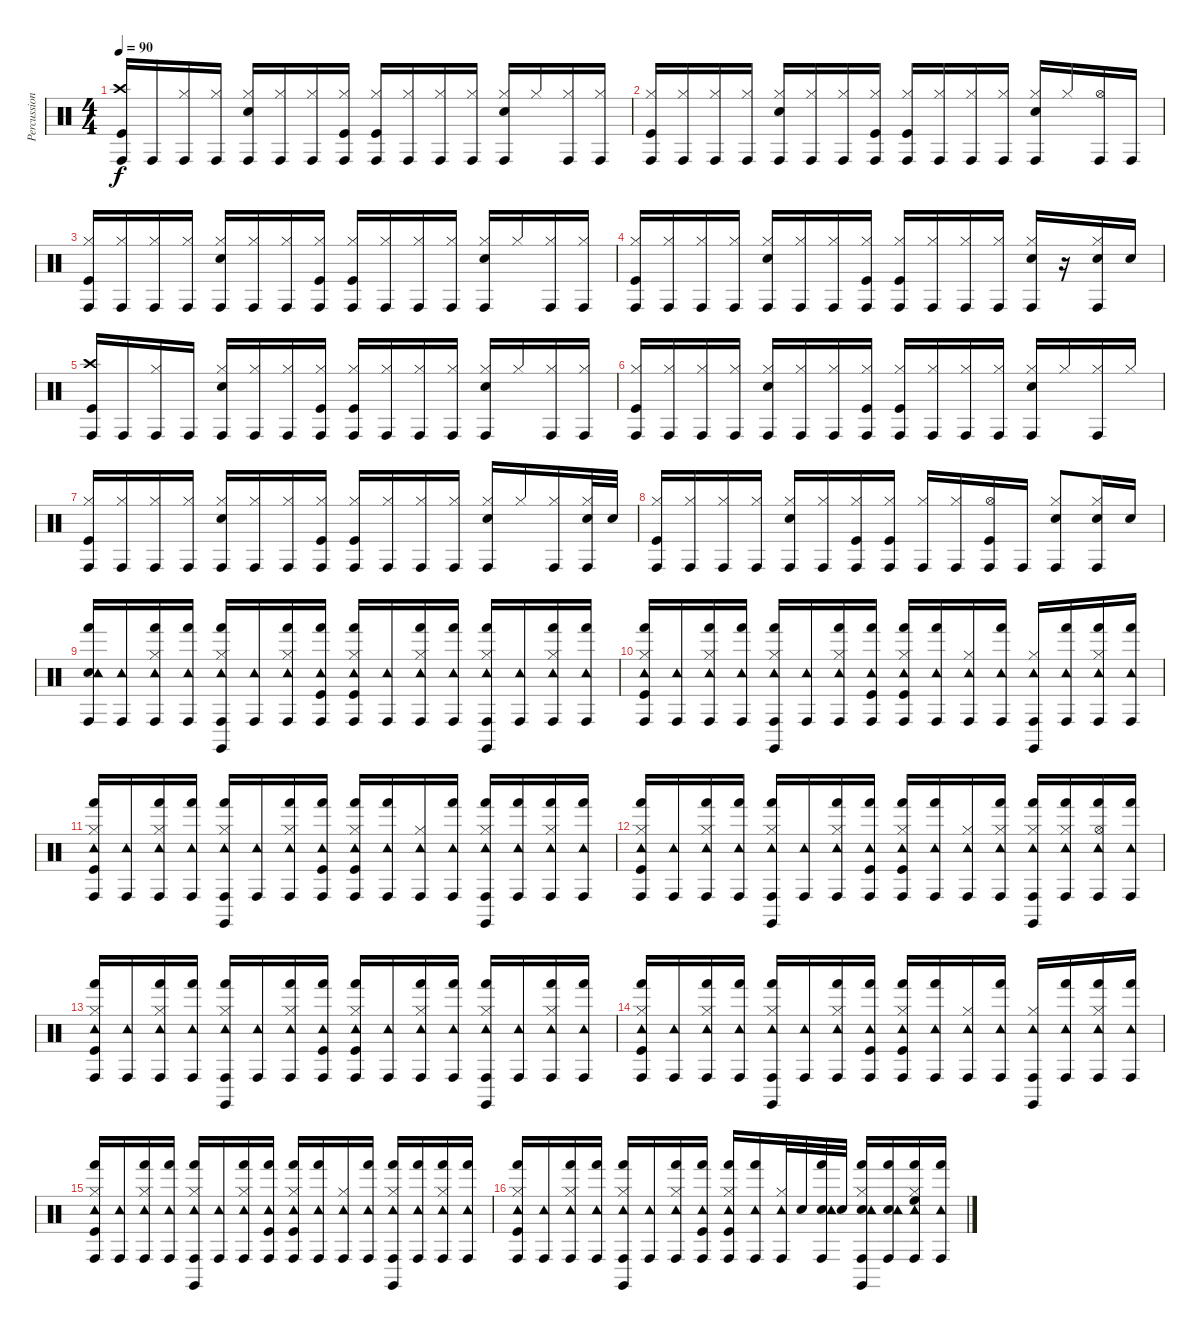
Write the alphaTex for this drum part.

\track ("Percussions" "Percussion") {instrument percussion}
\staff {score}
\articulation defaults
\ts (4 4)
\tempo 90
\clef neutral
\ks c
("Crash high (hit)" "Kick (hit)" "Conga high (hit)").16{dy f} "Conga high (hit)".16 ("Hi-Hat (closed)" "Conga high (hit)").16 ("Hi-Hat (closed)" "Conga high (hit)").16 ("Hi-Hat (closed)" "Electric Snare (hit)" "Conga high (hit)").16 ("Hi-Hat (closed)" "Conga high (hit)").16 ("Hi-Hat (closed)" "Conga high (hit)").16 ("Hi-Hat (closed)" "Kick (hit)" "Conga high (hit)").16 ("Hi-Hat (closed)" "Kick (hit)" "Conga high (hit)").16 ("Hi-Hat (closed)" "Conga high (hit)").16 ("Hi-Hat (closed)" "Conga high (hit)").16 ("Hi-Hat (closed)" "Conga high (hit)").16 ("Hi-Hat (closed)" "Electric Snare (hit)" "Conga high (hit)").16 "Hi-Hat (closed)".16 ("Hi-Hat (closed)" "Conga high (hit)").16 ("Hi-Hat (closed)" "Conga high (hit)").16 |
("Hi-Hat (closed)" "Kick (hit)" "Conga high (hit)").16 ("Hi-Hat (closed)" "Conga high (hit)").16 ("Hi-Hat (closed)" "Conga high (hit)").16 ("Hi-Hat (closed)" "Conga high (hit)").16 ("Hi-Hat (closed)" "Electric Snare (hit)" "Conga high (hit)").16 ("Hi-Hat (closed)" "Conga high (hit)").16 ("Hi-Hat (closed)" "Conga high (hit)").16 ("Hi-Hat (closed)" "Kick (hit)" "Conga high (hit)").16 ("Hi-Hat (closed)" "Kick (hit)" "Conga high (hit)").16 ("Hi-Hat (closed)" "Conga high (hit)").16 ("Hi-Hat (closed)" "Conga high (hit)").16 ("Hi-Hat (closed)" "Conga high (hit)").16 ("Hi-Hat (closed)" "Electric Snare (hit)" "Conga high (hit)").16 "Hi-Hat (closed)".16 ("Hi-Hat (open)" "Conga high (hit)").16 "Conga high (hit)".16 |
("Hi-Hat (closed)" "Kick (hit)" "Conga high (hit)").16 ("Hi-Hat (closed)" "Conga high (hit)").16 ("Hi-Hat (closed)" "Conga high (hit)").16 ("Hi-Hat (closed)" "Conga high (hit)").16 ("Hi-Hat (closed)" "Electric Snare (hit)" "Conga high (hit)").16 ("Hi-Hat (closed)" "Conga high (hit)").16 ("Hi-Hat (closed)" "Conga high (hit)").16 ("Hi-Hat (closed)" "Kick (hit)" "Conga high (hit)").16 ("Hi-Hat (closed)" "Kick (hit)" "Conga high (hit)").16 ("Hi-Hat (closed)" "Conga high (hit)").16 ("Hi-Hat (closed)" "Conga high (hit)").16 ("Hi-Hat (closed)" "Conga high (hit)").16 ("Hi-Hat (closed)" "Electric Snare (hit)" "Conga high (hit)").16 "Hi-Hat (closed)".16 ("Hi-Hat (closed)" "Conga high (hit)").16 ("Hi-Hat (closed)" "Conga high (hit)").16 |
("Hi-Hat (closed)" "Kick (hit)" "Conga high (hit)").16 ("Hi-Hat (closed)" "Conga high (hit)").16 ("Hi-Hat (closed)" "Conga high (hit)").16 ("Hi-Hat (closed)" "Conga high (hit)").16 ("Hi-Hat (closed)" "Electric Snare (hit)" "Conga high (hit)").16 ("Hi-Hat (closed)" "Conga high (hit)").16 ("Hi-Hat (closed)" "Conga high (hit)").16 ("Hi-Hat (closed)" "Kick (hit)" "Conga high (hit)").16 ("Hi-Hat (closed)" "Kick (hit)" "Conga high (hit)").16 ("Hi-Hat (closed)" "Conga high (hit)").16 ("Hi-Hat (closed)" "Conga high (hit)").16 ("Hi-Hat (closed)" "Conga high (hit)").16 ("Hi-Hat (closed)" "Electric Snare (hit)" "Conga high (hit)").16 r.16 ("Hi-Hat (closed)" "Electric Snare (hit)" "Conga high (hit)").16 "Electric Snare (hit)".16 |
("Crash high (hit)" "Kick (hit)" "Conga high (hit)").16 "Conga high (hit)".16 ("Hi-Hat (closed)" "Conga high (hit)").16 "Conga high (hit)".16 ("Hi-Hat (closed)" "Electric Snare (hit)" "Conga high (hit)").16 ("Hi-Hat (closed)" "Conga high (hit)").16 ("Hi-Hat (closed)" "Conga high (hit)").16 ("Hi-Hat (closed)" "Kick (hit)" "Conga high (hit)").16 ("Hi-Hat (closed)" "Kick (hit)" "Conga high (hit)").16 ("Hi-Hat (closed)" "Conga high (hit)").16 ("Hi-Hat (closed)" "Conga high (hit)").16 ("Hi-Hat (closed)" "Conga high (hit)").16 ("Hi-Hat (closed)" "Electric Snare (hit)" "Conga high (hit)").16 "Hi-Hat (closed)".16 ("Hi-Hat (closed)" "Conga high (hit)").16 ("Hi-Hat (closed)" "Conga high (hit)").16 |
("Hi-Hat (closed)" "Kick (hit)" "Conga high (hit)").16 ("Hi-Hat (closed)" "Conga high (hit)").16 ("Hi-Hat (closed)" "Conga high (hit)").16 ("Hi-Hat (closed)" "Conga high (hit)").16 ("Hi-Hat (closed)" "Electric Snare (hit)" "Conga high (hit)").16 ("Hi-Hat (closed)" "Conga high (hit)").16 ("Hi-Hat (closed)" "Conga high (hit)").16 ("Hi-Hat (closed)" "Kick (hit)" "Conga high (hit)").16 ("Hi-Hat (closed)" "Kick (hit)" "Conga high (hit)").16 ("Hi-Hat (closed)" "Conga high (hit)").16 ("Hi-Hat (closed)" "Conga high (hit)").16 ("Hi-Hat (closed)" "Conga high (hit)").16 ("Hi-Hat (closed)" "Electric Snare (hit)" "Conga high (hit)").16 "Hi-Hat (closed)".16 ("Hi-Hat (closed)" "Conga high (hit)").16 "Hi-Hat (closed)".16 |
("Hi-Hat (closed)" "Kick (hit)" "Conga high (hit)").16 ("Hi-Hat (closed)" "Conga high (hit)").16 ("Hi-Hat (closed)" "Conga high (hit)").16 ("Hi-Hat (closed)" "Conga high (hit)").16 ("Hi-Hat (closed)" "Electric Snare (hit)" "Conga high (hit)").16 ("Hi-Hat (closed)" "Conga high (hit)").16 ("Hi-Hat (closed)" "Conga high (hit)").16 ("Hi-Hat (closed)" "Kick (hit)" "Conga high (hit)").16 ("Hi-Hat (closed)" "Kick (hit)" "Conga high (hit)").16 ("Hi-Hat (closed)" "Conga high (hit)").16 ("Hi-Hat (closed)" "Conga high (hit)").16 ("Hi-Hat (closed)" "Conga high (hit)").16 ("Hi-Hat (closed)" "Electric Snare (hit)" "Conga high (hit)").16 "Hi-Hat (closed)".16 ("Hi-Hat (closed)" "Conga high (hit)").16 ("Hi-Hat (closed)" "Electric Snare (hit)" "Conga high (hit)").32 "Electric Snare (hit)".32 |
("Hi-Hat (closed)" "Kick (hit)" "Conga high (hit)").16 ("Hi-Hat (closed)" "Conga high (hit)").16 ("Hi-Hat (closed)" "Conga high (hit)").16 ("Hi-Hat (closed)" "Conga high (hit)").16 ("Hi-Hat (closed)" "Electric Snare (hit)" "Conga high (hit)").16 ("Hi-Hat (closed)" "Conga high (hit)").16 ("Hi-Hat (closed)" "Kick (hit)" "Conga high (hit)").16 ("Hi-Hat (closed)" "Kick (hit)" "Conga high (hit)").16 ("Hi-Hat (closed)" "Conga high (hit)").16 ("Hi-Hat (closed)" "Conga high (hit)").16 ("Hi-Hat (open)" "Kick (hit)" "Conga high (hit)").16 "Conga high (hit)".16 ("Hi-Hat (closed)" "Electric Snare (hit)" "Conga high (hit)").8 ("Hi-Hat (closed)" "Electric Snare (hit)" "Conga high (hit)").16 "Electric Snare (hit)".16 |
("Electric Snare (hit)" "Hand (hit)" "Tambourine (hit)" "Conga high (hit)").16 ("Tambourine (hit)" "Conga high (hit)").16 ("Hi-Hat (closed)" "Hand (hit)" "Tambourine (hit)" "Conga high (hit)").16 ("Hand (hit)" "Tambourine (hit)" "Conga high (hit)").16 ("Hi-Hat (closed)" "Claves (hit)" "Hand (hit)" "Tambourine (hit)" "Conga high (hit)").16 ("Tambourine (hit)" "Conga high (hit)").16 ("Hi-Hat (closed)" "Hand (hit)" "Tambourine (hit)" "Conga high (hit)").16 ("Kick (hit)" "Hand (hit)" "Tambourine (hit)" "Conga high (hit)").16 ("Hi-Hat (closed)" "Kick (hit)" "Hand (hit)" "Tambourine (hit)" "Conga high (hit)").16 ("Tambourine (hit)" "Conga high (hit)").16 ("Hi-Hat (closed)" "Hand (hit)" "Tambourine (hit)" "Conga high (hit)").16 ("Hand (hit)" "Tambourine (hit)" "Conga high (hit)").16 ("Hi-Hat (closed)" "Claves (hit)" "Hand (hit)" "Tambourine (hit)" "Conga high (hit)").16 ("Tambourine (hit)" "Conga high (hit)").16 ("Hi-Hat (closed)" "Hand (hit)" "Tambourine (hit)" "Conga high (hit)").16 ("Hand (hit)" "Tambourine (hit)" "Conga high (hit)").16 |
("Hi-Hat (closed)" "Kick (hit)" "Hand (hit)" "Tambourine (hit)" "Conga high (hit)").16 ("Tambourine (hit)" "Conga high (hit)").16 ("Hi-Hat (closed)" "Hand (hit)" "Tambourine (hit)" "Conga high (hit)").16 ("Hand (hit)" "Tambourine (hit)" "Conga high (hit)").16 ("Hi-Hat (closed)" "Claves (hit)" "Hand (hit)" "Tambourine (hit)" "Conga high (hit)").16 ("Tambourine (hit)" "Conga high (hit)").16 ("Hi-Hat (closed)" "Hand (hit)" "Tambourine (hit)" "Conga high (hit)").16 ("Kick (hit)" "Hand (hit)" "Tambourine (hit)" "Conga high (hit)").16 ("Hi-Hat (closed)" "Kick (hit)" "Hand (hit)" "Tambourine (hit)" "Conga high (hit)").16 ("Hand (hit)" "Tambourine (hit)" "Conga high (hit)").16 ("Hi-Hat (closed)" "Tambourine (hit)" "Conga high (hit)").16 ("Hand (hit)" "Tambourine (hit)" "Conga high (hit)").16 ("Hi-Hat (closed)" "Claves (hit)" "Tambourine (hit)" "Conga high (hit)").16 ("Hand (hit)" "Tambourine (hit)" "Conga high (hit)").16 ("Hi-Hat (closed)" "Hand (hit)" "Tambourine (hit)" "Conga high (hit)").16 ("Hand (hit)" "Tambourine (hit)" "Conga high (hit)").16 |
("Hi-Hat (closed)" "Kick (hit)" "Hand (hit)" "Tambourine (hit)" "Conga high (hit)").16 ("Tambourine (hit)" "Conga high (hit)").16 ("Hi-Hat (closed)" "Hand (hit)" "Tambourine (hit)" "Conga high (hit)").16 ("Hand (hit)" "Tambourine (hit)" "Conga high (hit)").16 ("Hi-Hat (closed)" "Claves (hit)" "Hand (hit)" "Tambourine (hit)" "Conga high (hit)").16 ("Tambourine (hit)" "Conga high (hit)").16 ("Hi-Hat (closed)" "Hand (hit)" "Tambourine (hit)" "Conga high (hit)").16 ("Kick (hit)" "Hand (hit)" "Tambourine (hit)" "Conga high (hit)").16 ("Hi-Hat (closed)" "Kick (hit)" "Hand (hit)" "Tambourine (hit)" "Conga high (hit)").16 ("Hand (hit)" "Tambourine (hit)" "Conga high (hit)").16 ("Hi-Hat (closed)" "Tambourine (hit)" "Conga high (hit)").16 ("Hand (hit)" "Tambourine (hit)" "Conga high (hit)").16 ("Hi-Hat (closed)" "Claves (hit)" "Hand (hit)" "Tambourine (hit)" "Conga high (hit)").16 ("Hand (hit)" "Tambourine (hit)" "Conga high (hit)").16 ("Hi-Hat (closed)" "Hand (hit)" "Tambourine (hit)" "Conga high (hit)").16 ("Hand (hit)" "Tambourine (hit)" "Conga high (hit)").16 |
("Hi-Hat (closed)" "Kick (hit)" "Hand (hit)" "Tambourine (hit)" "Conga high (hit)").16 ("Tambourine (hit)" "Conga high (hit)").16 ("Hi-Hat (closed)" "Hand (hit)" "Tambourine (hit)" "Conga high (hit)").16 ("Hand (hit)" "Tambourine (hit)" "Conga high (hit)").16 ("Hi-Hat (closed)" "Claves (hit)" "Hand (hit)" "Tambourine (hit)" "Conga high (hit)").16 ("Tambourine (hit)" "Conga high (hit)").16 ("Hi-Hat (closed)" "Hand (hit)" "Tambourine (hit)" "Conga high (hit)").16 ("Kick (hit)" "Hand (hit)" "Tambourine (hit)" "Conga high (hit)").16 ("Hi-Hat (closed)" "Kick (hit)" "Hand (hit)" "Tambourine (hit)" "Conga high (hit)").16 ("Hand (hit)" "Tambourine (hit)" "Conga high (hit)").16 ("Hi-Hat (closed)" "Tambourine (hit)" "Conga high (hit)").16 ("Hi-Hat (closed)" "Hand (hit)" "Tambourine (hit)" "Conga high (hit)").16 ("Hi-Hat (closed)" "Claves (hit)" "Hand (hit)" "Tambourine (hit)" "Conga high (hit)").16 ("Hi-Hat (closed)" "Hand (hit)" "Tambourine (hit)" "Conga high (hit)").16 ("Hi-Hat (open)" "Hand (hit)" "Tambourine (hit)" "Conga high (hit)").16 ("Hand (hit)" "Tambourine (hit)" "Conga high (hit)").16 |
("Hi-Hat (closed)" "Kick (hit)" "Hand (hit)" "Tambourine (hit)" "Conga high (hit)").16 ("Tambourine (hit)" "Conga high (hit)").16 ("Hi-Hat (closed)" "Hand (hit)" "Tambourine (hit)" "Conga high (hit)").16 ("Hand (hit)" "Tambourine (hit)" "Conga high (hit)").16 ("Hi-Hat (closed)" "Claves (hit)" "Hand (hit)" "Tambourine (hit)" "Conga high (hit)").16 ("Tambourine (hit)" "Conga high (hit)").16 ("Hi-Hat (closed)" "Hand (hit)" "Tambourine (hit)" "Conga high (hit)").16 ("Kick (hit)" "Hand (hit)" "Tambourine (hit)" "Conga high (hit)").16 ("Hi-Hat (closed)" "Kick (hit)" "Hand (hit)" "Tambourine (hit)" "Conga high (hit)").16 ("Tambourine (hit)" "Conga high (hit)").16 ("Hi-Hat (closed)" "Hand (hit)" "Tambourine (hit)" "Conga high (hit)").16 ("Hand (hit)" "Tambourine (hit)" "Conga high (hit)").16 ("Hi-Hat (closed)" "Claves (hit)" "Hand (hit)" "Tambourine (hit)" "Conga high (hit)").16 ("Tambourine (hit)" "Conga high (hit)").16 ("Hi-Hat (closed)" "Hand (hit)" "Tambourine (hit)" "Conga high (hit)").16 ("Hand (hit)" "Tambourine (hit)" "Conga high (hit)").16 |
("Hi-Hat (closed)" "Kick (hit)" "Hand (hit)" "Tambourine (hit)" "Conga high (hit)").16 ("Tambourine (hit)" "Conga high (hit)").16 ("Hi-Hat (closed)" "Hand (hit)" "Tambourine (hit)" "Conga high (hit)").16 ("Hand (hit)" "Tambourine (hit)" "Conga high (hit)").16 ("Hi-Hat (closed)" "Claves (hit)" "Hand (hit)" "Tambourine (hit)" "Conga high (hit)").16 ("Tambourine (hit)" "Conga high (hit)").16 ("Hi-Hat (closed)" "Hand (hit)" "Tambourine (hit)" "Conga high (hit)").16 ("Kick (hit)" "Hand (hit)" "Tambourine (hit)" "Conga high (hit)").16 ("Hi-Hat (closed)" "Kick (hit)" "Hand (hit)" "Tambourine (hit)" "Conga high (hit)").16 ("Hand (hit)" "Tambourine (hit)" "Conga high (hit)").16 ("Hi-Hat (closed)" "Tambourine (hit)" "Conga high (hit)").16 ("Hand (hit)" "Tambourine (hit)" "Conga high (hit)").16 ("Hi-Hat (closed)" "Claves (hit)" "Tambourine (hit)" "Conga high (hit)").16 ("Hand (hit)" "Tambourine (hit)" "Conga high (hit)").16 ("Hi-Hat (closed)" "Hand (hit)" "Tambourine (hit)" "Conga high (hit)").16 ("Hand (hit)" "Tambourine (hit)" "Conga high (hit)").16 |
("Hi-Hat (closed)" "Kick (hit)" "Hand (hit)" "Tambourine (hit)" "Conga high (hit)").16 ("Tambourine (hit)" "Conga high (hit)").16 ("Hi-Hat (closed)" "Hand (hit)" "Tambourine (hit)" "Conga high (hit)").16 ("Hand (hit)" "Tambourine (hit)" "Conga high (hit)").16 ("Hi-Hat (closed)" "Claves (hit)" "Hand (hit)" "Tambourine (hit)" "Conga high (hit)").16 ("Tambourine (hit)" "Conga high (hit)").16 ("Hi-Hat (closed)" "Hand (hit)" "Tambourine (hit)" "Conga high (hit)").16 ("Kick (hit)" "Hand (hit)" "Tambourine (hit)" "Conga high (hit)").16 ("Hi-Hat (closed)" "Kick (hit)" "Hand (hit)" "Tambourine (hit)" "Conga high (hit)").16 ("Hand (hit)" "Tambourine (hit)" "Conga high (hit)").16 ("Hi-Hat (closed)" "Tambourine (hit)" "Conga high (hit)").16 ("Hand (hit)" "Tambourine (hit)" "Conga high (hit)").16 ("Hi-Hat (closed)" "Claves (hit)" "Hand (hit)" "Tambourine (hit)" "Conga high (hit)").16 ("Hand (hit)" "Tambourine (hit)" "Conga high (hit)").16 ("Hi-Hat (closed)" "Hand (hit)" "Tambourine (hit)" "Conga high (hit)").16 ("Hand (hit)" "Tambourine (hit)" "Conga high (hit)").16 |
("Hi-Hat (closed)" "Kick (hit)" "Hand (hit)" "Tambourine (hit)" "Conga high (hit)").16 ("Tambourine (hit)" "Conga high (hit)").16 ("Hi-Hat (closed)" "Hand (hit)" "Tambourine (hit)" "Conga high (hit)").16 ("Hand (hit)" "Tambourine (hit)" "Conga high (hit)").16 ("Hi-Hat (closed)" "Claves (hit)" "Hand (hit)" "Tambourine (hit)" "Conga high (hit)").16 ("Tambourine (hit)" "Conga high (hit)").16 ("Hi-Hat (closed)" "Hand (hit)" "Tambourine (hit)" "Conga high (hit)").16 ("Kick (hit)" "Hand (hit)" "Tambourine (hit)" "Conga high (hit)").16 ("Hi-Hat (closed)" "Kick (hit)" "Hand (hit)" "Tambourine (hit)" "Conga high (hit)").16 ("Hand (hit)" "Tambourine (hit)" "Conga high (hit)").16 ("Hi-Hat (closed)" "Tambourine (hit)" "Conga high (hit)").32 "Electric Snare (hit)".32 ("Electric Snare (hit)" "Hand (hit)" "Tambourine (hit)" "Conga high (hit)").32 "Electric Snare (hit)".32 ("Hi-Hat (closed)" "Electric Snare (hit)" "Claves (hit)" "Hand (hit)" "Tambourine (hit)" "Conga high (hit)").16 ("Electric Snare (hit)" "Hand (hit)" "Tambourine (hit)" "Conga high (hit)").16 ("Hi-Hat (closed)" "High Floor Tom (hit)" "Hand (hit)" "Tambourine (hit)" "Conga high (hit)").16 ("Hand (hit)" "Tambourine (hit)" "Conga high (hit)").16
